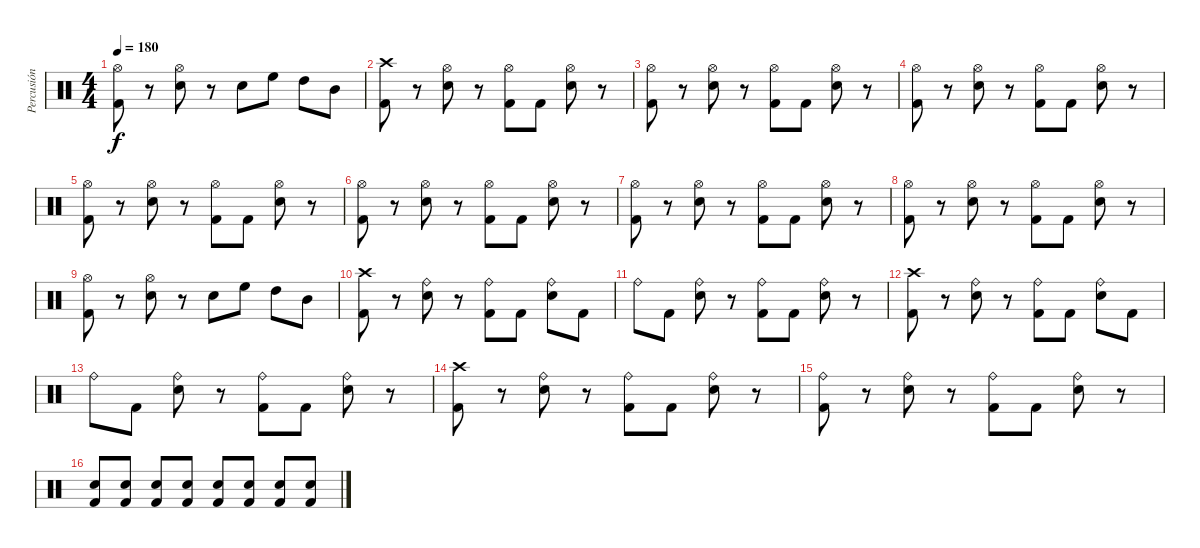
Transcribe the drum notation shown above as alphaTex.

\track ("Percusión" "Percusión") {instrument percussion}
\staff {score}
\articulation defaults
\ts (4 4)
\tempo 180
\clef neutral
\ks c
("Hi-Hat (open)" "Kick (hit) 2").8{dy f} r.8 ("Hi-Hat (open)" "Electric Snare (hit)").8 r.8 "Electric Snare (hit)".8 "High Floor Tom (hit)".8 "High Tom (hit)".8 "Mid Tom (hit)".8 |
("Crash high (hit)" "Kick (hit) 2").8 r.8 ("Hi-Hat (open)" "Electric Snare (hit)").8 r.8 ("Hi-Hat (open)" "Kick (hit) 2").8 "Kick (hit) 2".8 ("Hi-Hat (open)" "Electric Snare (hit)").8 r.8 |
("Hi-Hat (open)" "Kick (hit) 2").8 r.8 ("Hi-Hat (open)" "Electric Snare (hit)").8 r.8 ("Hi-Hat (open)" "Kick (hit) 2").8 "Kick (hit) 2".8 ("Hi-Hat (open)" "Electric Snare (hit)").8 r.8 |
("Hi-Hat (open)" "Kick (hit) 2").8 r.8 ("Hi-Hat (open)" "Electric Snare (hit)").8 r.8 ("Hi-Hat (open)" "Kick (hit) 2").8 "Kick (hit) 2".8 ("Hi-Hat (open)" "Electric Snare (hit)").8 r.8 |
("Hi-Hat (open)" "Kick (hit) 2").8 r.8 ("Hi-Hat (open)" "Electric Snare (hit)").8 r.8 ("Hi-Hat (open)" "Kick (hit) 2").8 "Kick (hit) 2".8 ("Hi-Hat (open)" "Electric Snare (hit)").8 r.8 |
("Hi-Hat (open)" "Kick (hit) 2").8 r.8 ("Hi-Hat (open)" "Electric Snare (hit)").8 r.8 ("Hi-Hat (open)" "Kick (hit) 2").8 "Kick (hit) 2".8 ("Hi-Hat (open)" "Electric Snare (hit)").8 r.8 |
("Hi-Hat (open)" "Kick (hit) 2").8 r.8 ("Hi-Hat (open)" "Electric Snare (hit)").8 r.8 ("Hi-Hat (open)" "Kick (hit) 2").8 "Kick (hit) 2".8 ("Hi-Hat (open)" "Electric Snare (hit)").8 r.8 |
("Hi-Hat (open)" "Kick (hit) 2").8 r.8 ("Hi-Hat (open)" "Electric Snare (hit)").8 r.8 ("Hi-Hat (open)" "Kick (hit) 2").8 "Kick (hit) 2".8 ("Hi-Hat (open)" "Electric Snare (hit)").8 r.8 |
("Hi-Hat (open)" "Kick (hit) 2").8 r.8 ("Hi-Hat (open)" "Electric Snare (hit)").8 r.8 "Electric Snare (hit)".8 "High Floor Tom (hit)".8 "High Tom (hit)".8 "Mid Tom (hit)".8 |
("Crash high (hit)" "Kick (hit) 2").8 r.8 ("Ride (bell)" "Electric Snare (hit)").8 r.8 ("Ride (bell)" "Kick (hit) 2").8 "Kick (hit) 2".8 ("Ride (bell)" "Electric Snare (hit)").8 "Kick (hit) 2".8 |
"Ride (bell)".8 "Kick (hit) 2".8 ("Ride (bell)" "Electric Snare (hit)").8 r.8 ("Ride (bell)" "Kick (hit) 2").8 "Kick (hit) 2".8 ("Ride (bell)" "Electric Snare (hit)").8 r.8 |
("Crash high (hit)" "Kick (hit) 2").8 r.8 ("Ride (bell)" "Electric Snare (hit)").8 r.8 ("Ride (bell)" "Kick (hit) 2").8 "Kick (hit) 2".8 ("Ride (bell)" "Electric Snare (hit)").8 "Kick (hit) 2".8 |
"Ride (bell)".8 "Kick (hit) 2".8 ("Ride (bell)" "Electric Snare (hit)").8 r.8 ("Ride (bell)" "Kick (hit) 2").8 "Kick (hit) 2".8 ("Ride (bell)" "Electric Snare (hit)").8 r.8 |
("Crash high (hit)" "Kick (hit) 2").8 r.8 ("Ride (bell)" "Electric Snare (hit)").8 r.8 ("Ride (bell)" "Kick (hit) 2").8 "Kick (hit) 2".8 ("Ride (bell)" "Electric Snare (hit)").8 r.8 |
("Ride (bell)" "Kick (hit) 2").8 r.8 ("Ride (bell)" "Electric Snare (hit)").8 r.8 ("Ride (bell)" "Kick (hit) 2").8 "Kick (hit) 2".8 ("Ride (bell)" "Electric Snare (hit)").8 r.8 |
("Kick (hit) 2" "Electric Snare (hit)").8{volume 10} ("Kick (hit) 2" "Electric Snare (hit)").8{volume 11} ("Kick (hit) 2" "Electric Snare (hit)").8{volume 12} ("Kick (hit) 2" "Electric Snare (hit)").8{volume 13} ("Kick (hit) 2" "Electric Snare (hit)").8{volume 13} ("Kick (hit) 2" "Electric Snare (hit)").8{volume 15} ("Kick (hit) 2" "Electric Snare (hit)").8{volume 16} ("Kick (hit) 2" "Electric Snare (hit)").8{volume 16}
